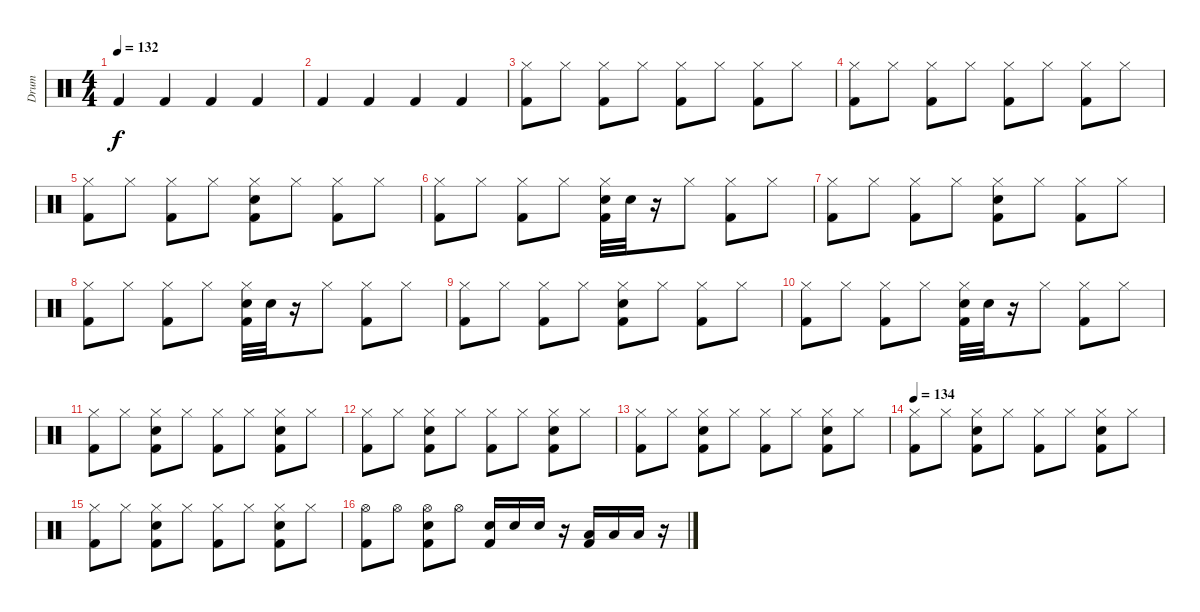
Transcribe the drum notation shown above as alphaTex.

\track ("Drum" "Drum") {instrument percussion}
\staff {score}
\articulation defaults
\ts (4 4)
\tempo 132
\clef neutral
\ks c "Kick (hit) 2".4{dy f} "Kick (hit) 2".4 "Kick (hit) 2".4 "Kick (hit) 2".4
|
"Kick (hit) 2".4 "Kick (hit) 2".4 "Kick (hit) 2".4 "Kick (hit) 2".4 |
("Hi-Hat (closed)" "Kick (hit) 2").8 "Hi-Hat (closed)".8 ("Hi-Hat (closed)" "Kick (hit) 2").8 "Hi-Hat (closed)".8 ("Hi-Hat (closed)" "Kick (hit) 2").8 "Hi-Hat (closed)".8 ("Hi-Hat (closed)" "Kick (hit) 2").8 "Hi-Hat (closed)".8 |
("Hi-Hat (closed)" "Kick (hit) 2").8 "Hi-Hat (closed)".8 ("Hi-Hat (closed)" "Kick (hit) 2").8 "Hi-Hat (closed)".8 ("Hi-Hat (closed)" "Kick (hit) 2").8 "Hi-Hat (closed)".8 ("Hi-Hat (closed)" "Kick (hit) 2").8 "Hi-Hat (closed)".8 |
("Hi-Hat (closed)" "Kick (hit) 2").8 "Hi-Hat (closed)".8 ("Hi-Hat (closed)" "Kick (hit) 2").8 "Hi-Hat (closed)".8 ("Hi-Hat (closed)" "Electric Snare (hit)" "Kick (hit) 2").8 "Hi-Hat (closed)".8 ("Hi-Hat (closed)" "Kick (hit) 2").8 "Hi-Hat (closed)".8 |
("Hi-Hat (closed)" "Kick (hit) 2").8 "Hi-Hat (closed)".8 ("Hi-Hat (closed)" "Kick (hit) 2").8 "Hi-Hat (closed)".8 ("Hi-Hat (closed)" "Electric Snare (hit)" "Kick (hit) 2").32 "Electric Snare (hit)".32 r.16 "Hi-Hat (closed)".8 ("Hi-Hat (closed)" "Kick (hit) 2").8 "Hi-Hat (closed)".8 |
("Hi-Hat (closed)" "Kick (hit) 2").8 "Hi-Hat (closed)".8 ("Hi-Hat (closed)" "Kick (hit) 2").8 "Hi-Hat (closed)".8 ("Hi-Hat (closed)" "Electric Snare (hit)" "Kick (hit) 2").8 "Hi-Hat (closed)".8 ("Hi-Hat (closed)" "Kick (hit) 2").8 "Hi-Hat (closed)".8 |
("Hi-Hat (closed)" "Kick (hit) 2").8 "Hi-Hat (closed)".8 ("Hi-Hat (closed)" "Kick (hit) 2").8 "Hi-Hat (closed)".8 ("Hi-Hat (closed)" "Electric Snare (hit)" "Kick (hit) 2").32 "Electric Snare (hit)".32 r.16 "Hi-Hat (closed)".8 ("Hi-Hat (closed)" "Kick (hit) 2").8 "Hi-Hat (closed)".8 |
("Hi-Hat (closed)" "Kick (hit) 2").8 "Hi-Hat (closed)".8 ("Hi-Hat (closed)" "Kick (hit) 2").8 "Hi-Hat (closed)".8 ("Hi-Hat (closed)" "Electric Snare (hit)" "Kick (hit) 2").8 "Hi-Hat (closed)".8 ("Hi-Hat (closed)" "Kick (hit) 2").8 "Hi-Hat (closed)".8 |
("Hi-Hat (closed)" "Kick (hit) 2").8 "Hi-Hat (closed)".8 ("Hi-Hat (closed)" "Kick (hit) 2").8 "Hi-Hat (closed)".8 ("Hi-Hat (closed)" "Electric Snare (hit)" "Kick (hit) 2").32 "Electric Snare (hit)".32 r.16 "Hi-Hat (closed)".8 ("Hi-Hat (closed)" "Kick (hit) 2").8 "Hi-Hat (closed)".8 |
("Hi-Hat (closed)" "Kick (hit) 2").8 "Hi-Hat (closed)".8 ("Hi-Hat (closed)" "Electric Snare (hit)" "Kick (hit) 2").8 "Hi-Hat (closed)".8 ("Hi-Hat (closed)" "Kick (hit) 2").8 "Hi-Hat (closed)".8 ("Hi-Hat (closed)" "Electric Snare (hit)" "Kick (hit) 2").8 "Hi-Hat (closed)".8 |
("Hi-Hat (closed)" "Kick (hit) 2").8 "Hi-Hat (closed)".8 ("Hi-Hat (closed)" "Electric Snare (hit)" "Kick (hit) 2").8 "Hi-Hat (closed)".8 ("Hi-Hat (closed)" "Kick (hit) 2").8 "Hi-Hat (closed)".8 ("Hi-Hat (closed)" "Electric Snare (hit)" "Kick (hit) 2").8 "Hi-Hat (closed)".8 |
("Hi-Hat (closed)" "Kick (hit) 2").8 "Hi-Hat (closed)".8 ("Hi-Hat (closed)" "Electric Snare (hit)" "Kick (hit) 2").8 "Hi-Hat (closed)".8 ("Hi-Hat (closed)" "Kick (hit) 2").8 "Hi-Hat (closed)".8 ("Hi-Hat (closed)" "Electric Snare (hit)" "Kick (hit) 2").8 "Hi-Hat (closed)".8 |
\tempo 134
("Hi-Hat (closed)" "Kick (hit) 2").8 "Hi-Hat (closed)".8 ("Hi-Hat (closed)" "Electric Snare (hit)" "Kick (hit) 2").8 "Hi-Hat (closed)".8 ("Hi-Hat (closed)" "Kick (hit) 2").8 "Hi-Hat (closed)".8 ("Hi-Hat (closed)" "Electric Snare (hit)" "Kick (hit) 2").8 "Hi-Hat (closed)".8 |
("Hi-Hat (closed)" "Kick (hit) 2").8 "Hi-Hat (closed)".8 ("Hi-Hat (closed)" "Electric Snare (hit)" "Kick (hit) 2").8 "Hi-Hat (closed)".8 ("Hi-Hat (closed)" "Kick (hit) 2").8 "Hi-Hat (closed)".8 ("Hi-Hat (closed)" "Electric Snare (hit)" "Kick (hit) 2").8 "Hi-Hat (closed)".8 |
("Hi-Hat (open)" "Kick (hit) 2").8 "Hi-Hat (open)".8 ("Hi-Hat (open)" "Electric Snare (hit)" "Kick (hit) 2").8 "Hi-Hat (open)".8 ("Electric Snare (hit)" "Kick (hit) 2").16 "Electric Snare (hit)".16 "Electric Snare (hit)".16 r.16 ("Low Tom (hit)" "Kick (hit) 2").16 "Low Tom (hit)".16 "Low Tom (hit)".16 r.16
